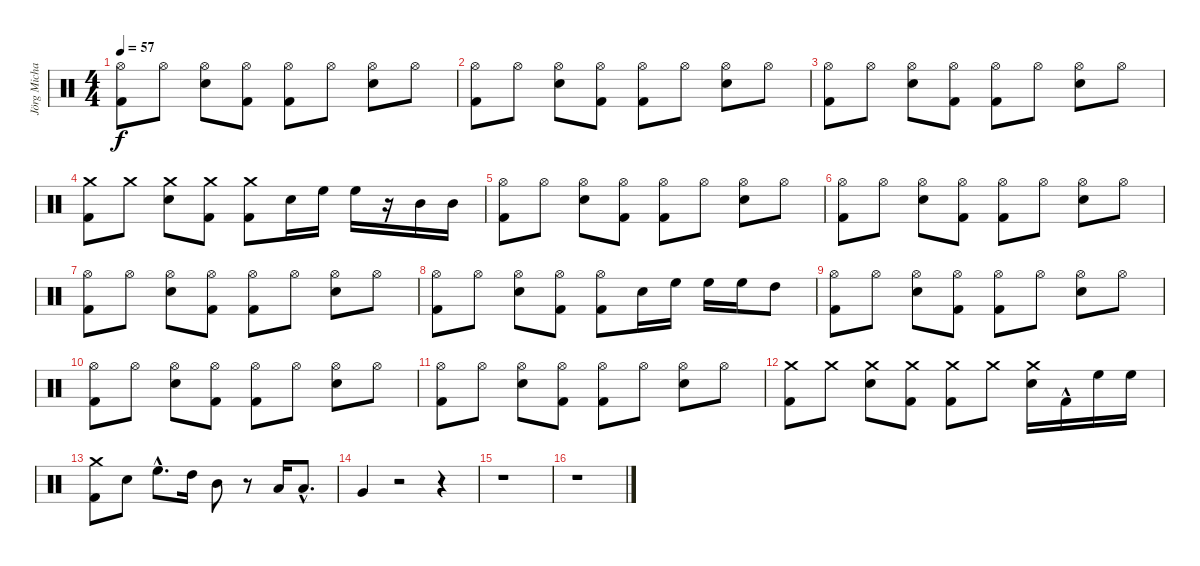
\track ("Jörg Michael" "Jörg Micha") {instrument percussion}
\staff {score}
\articulation defaults
\ts (4 4)
\tempo 57
\clef neutral
\ks c
("Kick (hit) 2" "Hi-Hat (open)").8{dy f} "Hi-Hat (open)".8 ("Snare (hit) 2" "Hi-Hat (open)").8 ("Kick (hit) 2" "Hi-Hat (open)").8 ("Kick (hit) 2" "Hi-Hat (open)").8 "Hi-Hat (open)".8 ("Snare (hit) 2" "Hi-Hat (open)").8 "Hi-Hat (open)".8 |
("Kick (hit) 2" "Hi-Hat (open)").8 "Hi-Hat (open)".8 ("Snare (hit) 2" "Hi-Hat (open)").8 ("Kick (hit) 2" "Hi-Hat (open)").8 ("Kick (hit) 2" "Hi-Hat (open)").8 "Hi-Hat (open)".8 ("Snare (hit) 2" "Hi-Hat (open)").8 "Hi-Hat (open)".8 |
("Kick (hit) 2" "Hi-Hat (open)").8 "Hi-Hat (open)".8 ("Snare (hit) 2" "Hi-Hat (open)").8 ("Kick (hit) 2" "Hi-Hat (open)").8 ("Kick (hit) 2" "Hi-Hat (open)").8 "Hi-Hat (open)".8 ("Snare (hit) 2" "Hi-Hat (open)").8 "Hi-Hat (open)".8 |
("Kick (hit) 2" "Crash medium (hit)").8 "Crash medium (hit)".8 ("Snare (hit) 2" "Crash medium (hit)").8 ("Kick (hit) 2" "Crash medium (hit)").8 ("Kick (hit) 2" "Crash medium (hit)").8 "Snare (hit) 2".16 "High Floor Tom (hit)".16 "High Floor Tom (hit)".16 r.16 "Mid Tom (hit)".16 "Mid Tom (hit)".16 |
("Kick (hit) 2" "Hi-Hat (open)").8 "Hi-Hat (open)".8 ("Snare (hit) 2" "Hi-Hat (open)").8 ("Kick (hit) 2" "Hi-Hat (open)").8 ("Kick (hit) 2" "Hi-Hat (open)").8 "Hi-Hat (open)".8 ("Snare (hit) 2" "Hi-Hat (open)").8 "Hi-Hat (open)".8 |
("Kick (hit) 2" "Hi-Hat (open)").8 "Hi-Hat (open)".8 ("Snare (hit) 2" "Hi-Hat (open)").8 ("Kick (hit) 2" "Hi-Hat (open)").8 ("Kick (hit) 2" "Hi-Hat (open)").8 "Hi-Hat (open)".8 ("Snare (hit) 2" "Hi-Hat (open)").8 "Hi-Hat (open)".8 |
("Kick (hit) 2" "Hi-Hat (open)").8 "Hi-Hat (open)".8 ("Snare (hit) 2" "Hi-Hat (open)").8 ("Kick (hit) 2" "Hi-Hat (open)").8 ("Kick (hit) 2" "Hi-Hat (open)").8 "Hi-Hat (open)".8 ("Snare (hit) 2" "Hi-Hat (open)").8 "Hi-Hat (open)".8 |
("Kick (hit) 2" "Hi-Hat (open)").8 "Hi-Hat (open)".8 ("Snare (hit) 2" "Hi-Hat (open)").8 ("Kick (hit) 2" "Hi-Hat (open)").8 ("Hi-Hat (open)" "Kick (hit) 2").8 "Snare (hit) 2".16 "High Floor Tom (hit)".16 "High Floor Tom (hit)".16 "High Floor Tom (hit)".16 "High Tom (hit)".8 |
("Kick (hit) 2" "Hi-Hat (open)").8 "Hi-Hat (open)".8 ("Snare (hit) 2" "Hi-Hat (open)").8 ("Kick (hit) 2" "Hi-Hat (open)").8 ("Kick (hit) 2" "Hi-Hat (open)").8 "Hi-Hat (open)".8 ("Snare (hit) 2" "Hi-Hat (open)").8 "Hi-Hat (open)".8 |
("Kick (hit) 2" "Hi-Hat (open)").8 "Hi-Hat (open)".8 ("Snare (hit) 2" "Hi-Hat (open)").8 ("Kick (hit) 2" "Hi-Hat (open)").8 ("Kick (hit) 2" "Hi-Hat (open)").8 "Hi-Hat (open)".8 ("Snare (hit) 2" "Hi-Hat (open)").8 "Hi-Hat (open)".8 |
("Kick (hit) 2" "Hi-Hat (open)").8 "Hi-Hat (open)".8 ("Snare (hit) 2" "Hi-Hat (open)").8 ("Kick (hit) 2" "Hi-Hat (open)").8 ("Kick (hit) 2" "Hi-Hat (open)").8 "Hi-Hat (open)".8 ("Snare (hit) 2" "Hi-Hat (open)").8 "Hi-Hat (open)".8 |
("Crash medium (hit)" "Kick (hit) 2").8 "Crash medium (hit)".8 ("Crash medium (hit)" "Snare (hit) 2").8 ("Crash medium (hit)" "Kick (hit) 2").8 ("Crash medium (hit)" "Kick (hit) 2").8 "Crash medium (hit)".8 ("Crash medium (hit)" "Snare (hit) 2").16 "Kick (hit) 2"{hac}.16 "High Floor Tom (hit)".16 "High Floor Tom (hit)".16 |
("Crash medium (hit)" "Kick (hit) 2").8 "Snare (hit) 2".8 "High Floor Tom (hit)"{hac}.8{d} "High Tom (hit)".16 "Mid Tom (hit)".8 r.8 "Low Tom (hit)".16 "Low Tom (hit)"{hac}.8{d} |
"Very Low Tom (hit)".4 r.2 r.4 |
r.1 |
r.1
